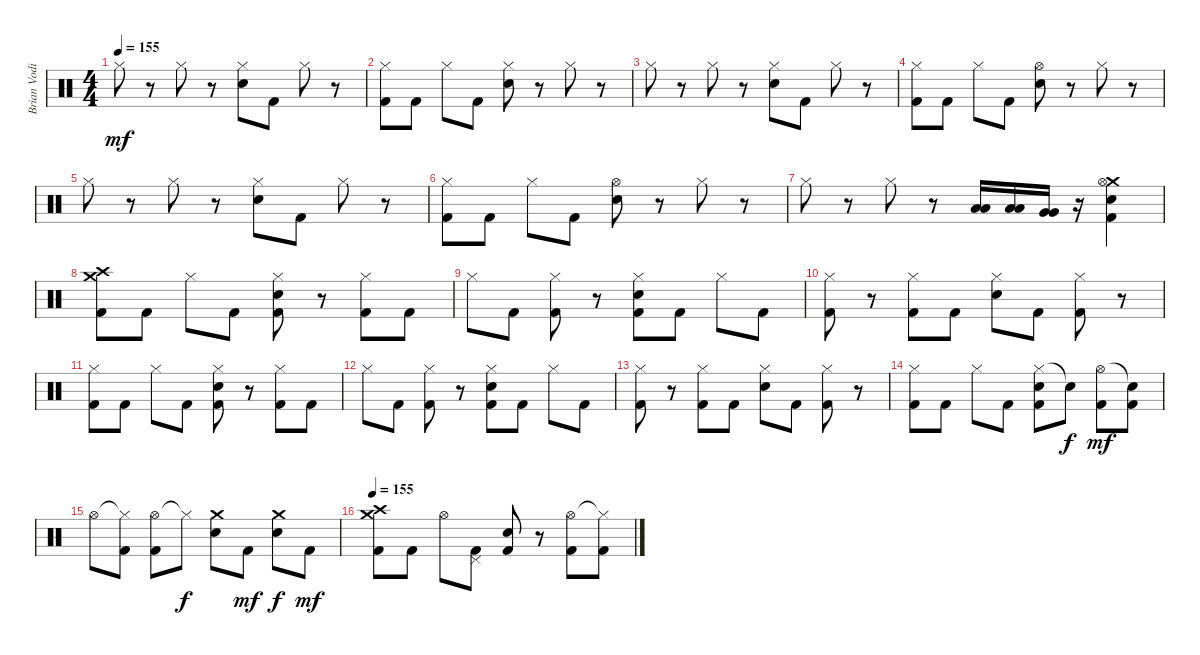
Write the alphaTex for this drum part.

\track ("Brian Vodinh" "Brian Vodi") {instrument percussion}
\staff {score}
\articulation defaults
\ts (4 4)
\tempo 155
\clef neutral
\ks c "Hi-Hat (closed)".8{dy mf}
r.8 "Hi-Hat (closed)".8 r.8 ("Hi-Hat (closed)" "Electric Snare (hit)").8 "Kick (hit) 2".8 "Hi-Hat (closed)".8 r.8 |
("Hi-Hat (closed)" "Kick (hit) 2").8 "Kick (hit) 2".8 "Hi-Hat (closed)".8 "Kick (hit) 2".8 ("Hi-Hat (closed)" "Electric Snare (hit)").8 r.8 "Hi-Hat (closed)".8 r.8 |
"Hi-Hat (closed)".8 r.8 "Hi-Hat (closed)".8 r.8 ("Hi-Hat (closed)" "Electric Snare (hit)").8 "Kick (hit) 2".8 "Hi-Hat (closed)".8 r.8 |
("Hi-Hat (closed)" "Kick (hit) 2").8 "Kick (hit) 2".8 "Hi-Hat (closed)".8 "Kick (hit) 2".8 ("Hi-Hat (open)" "Electric Snare (hit)").8 r.8 "Hi-Hat (closed)".8 r.8 |
"Hi-Hat (closed)".8 r.8 "Hi-Hat (closed)".8 r.8 ("Hi-Hat (closed)" "Electric Snare (hit)").8 "Kick (hit) 2".8 "Hi-Hat (closed)".8 r.8 |
("Hi-Hat (closed)" "Kick (hit) 2").8 "Kick (hit) 2".8 "Hi-Hat (closed)".8 "Kick (hit) 2".8 ("Hi-Hat (open)" "Electric Snare (hit)").8 r.8 "Hi-Hat (closed)".8 r.8 |
"Hi-Hat (closed)".8 r.8 "Hi-Hat (closed)".8 r.8 ("Low Tom (hit)" "Low Tom (hit)").16 ("Low Tom (hit)" "Low Tom (hit)").16 ("Very Low Tom (hit)" "Very Low Tom (hit)").16 r.16 ("Crash medium (hit)" "Hi-Hat (open)" "Electric Snare (hit)" "Kick (hit) 2").4 |
("Crash high (hit)" "Crash medium (hit)" "Kick (hit) 2").8 "Kick (hit) 2".8 "Hi-Hat (closed)".8 "Kick (hit) 2".8 ("Hi-Hat (closed)" "Electric Snare (hit)" "Kick (hit) 2").8 r.8 ("Hi-Hat (closed)" "Kick (hit) 2").8 "Kick (hit) 2".8 |
"Hi-Hat (closed)".8 "Kick (hit) 2".8 ("Hi-Hat (closed)" "Kick (hit) 2").8 r.8 ("Hi-Hat (closed)" "Electric Snare (hit)" "Kick (hit) 2").8 "Kick (hit) 2".8 "Hi-Hat (closed)".8 "Kick (hit) 2".8 |
("Hi-Hat (closed)" "Kick (hit) 2").8 r.8 ("Hi-Hat (closed)" "Kick (hit) 2").8 "Kick (hit) 2".8 ("Hi-Hat (closed)" "Electric Snare (hit)").8 "Kick (hit) 2".8 ("Hi-Hat (closed)" "Kick (hit) 2").8 r.8 |
("Hi-Hat (closed)" "Kick (hit) 2").8 "Kick (hit) 2".8 "Hi-Hat (closed)".8 "Kick (hit) 2".8 ("Hi-Hat (closed)" "Electric Snare (hit)" "Kick (hit) 2").8 r.8 ("Hi-Hat (closed)" "Kick (hit) 2").8 "Kick (hit) 2".8 |
"Hi-Hat (closed)".8 "Kick (hit) 2".8 ("Hi-Hat (closed)" "Kick (hit) 2").8 r.8 ("Hi-Hat (closed)" "Electric Snare (hit)" "Kick (hit) 2").8 "Kick (hit) 2".8 "Hi-Hat (closed)".8 "Kick (hit) 2".8 |
("Hi-Hat (closed)" "Kick (hit) 2").8 r.8 ("Hi-Hat (closed)" "Kick (hit) 2").8 "Kick (hit) 2".8 ("Hi-Hat (closed)" "Electric Snare (hit)").8 "Kick (hit) 2".8 ("Hi-Hat (closed)" "Kick (hit) 2").8 r.8 |
("Hi-Hat (closed)" "Kick (hit) 2").8 "Kick (hit) 2".8 "Hi-Hat (closed)".8 "Kick (hit) 2".8 ("Hi-Hat (closed)" "Electric Snare (hit)" "Kick (hit) 2").8 "Snare (hit)"{t}.8{dy f} ("Hi-Hat (open)" "Kick (hit) 2").8{dy mf} ("Snare (hit)"{t} "Kick (hit) 2").8 |
"Hi-Hat (open)".8 ("Hi-Hat (closed)"{t} "Kick (hit) 2").8 ("Hi-Hat (open)" "Kick (hit) 2").8 "Hi-Hat (closed)"{t}.8{dy f} ("Crash medium (hit)" "Electric Snare (hit)").8 "Kick (hit) 2".8{dy mf} ("Crash medium (hit)" "Electric Snare (hit)").8{dy f} "Kick (hit) 2".8{dy mf} |
\tempo 155
("Crash high (hit)" "Crash medium (hit)" "Kick (hit) 2").8 "Kick (hit) 2".8 "Hi-Hat (open)".8 ("Pedal Hi-Hat (hit)" "Kick (hit) 2").8 ("Electric Snare (hit)" "Kick (hit) 2").8 r.8 ("Hi-Hat (open)" "Kick (hit) 2").8 ("Hi-Hat (closed)"{t} "Kick (hit) 2").8
